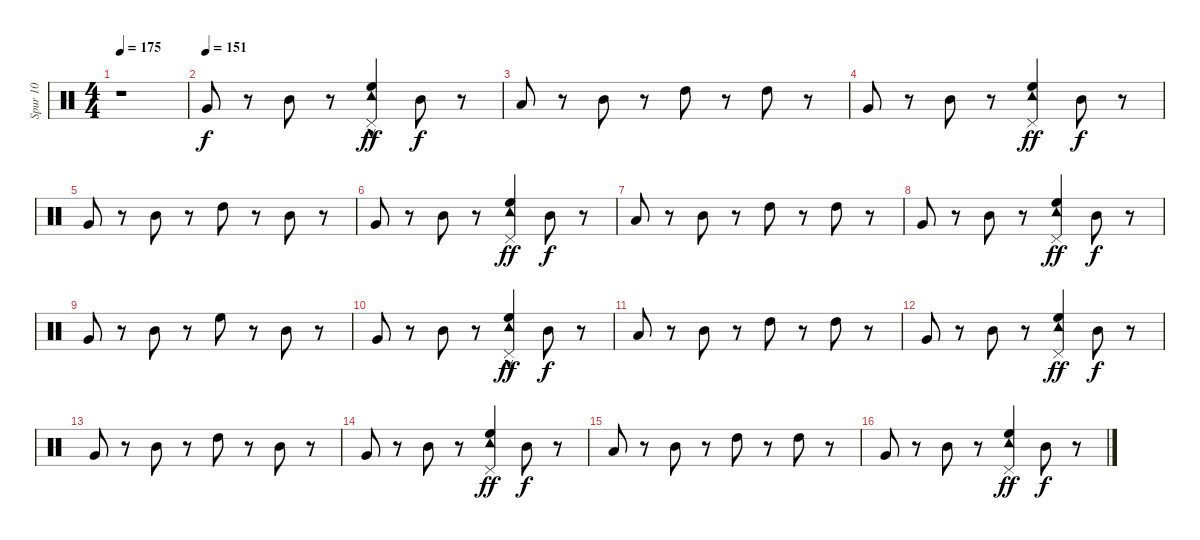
\track ("Spur 10" "Spur 10") {instrument percussion}
\staff {score}
\articulation defaults
\ts (4 4)
\tempo 175
\clef neutral
\ks c
r.1{dy f} |
\tempo (151)
"Very Low Tom (hit)".8 r.8 "Mid Tom (hit)".8 r.8 ("Pedal Hi-Hat (hit)" "Tambourine (hit)"{hac} "High Floor Tom (hit)").4{dy ff} "Mid Tom (hit)".8{dy f} r.8 |
"Low Tom (hit)".8 r.8 "Mid Tom (hit)".8 r.8 "High Tom (hit)".8 r.8 "High Tom (hit)".8 r.8 |
"Very Low Tom (hit)".8 r.8 "Mid Tom (hit)".8 r.8 ("Pedal Hi-Hat (hit)" "Tambourine (hit)" "High Floor Tom (hit)").4{dy ff} "Mid Tom (hit)".8{dy f} r.8 |
"Very Low Tom (hit)".8 r.8 "Mid Tom (hit)".8 r.8 "High Tom (hit)".8 r.8 "Mid Tom (hit)".8 r.8 |
"Very Low Tom (hit)".8 r.8 "Mid Tom (hit)".8 r.8 ("Pedal Hi-Hat (hit)" "Tambourine (hit)" "High Floor Tom (hit)").4{dy ff} "Mid Tom (hit)".8{dy f} r.8 |
"Low Tom (hit)".8 r.8 "Mid Tom (hit)".8 r.8 "High Tom (hit)".8 r.8 "High Tom (hit)".8 r.8 |
"Very Low Tom (hit)".8 r.8 "Mid Tom (hit)".8 r.8 ("Tambourine (hit)" "Pedal Hi-Hat (hit)" "High Floor Tom (hit)").4{dy ff} "Mid Tom (hit)".8{dy f} r.8 |
"Very Low Tom (hit)".8 r.8 "Mid Tom (hit)".8 r.8 "High Floor Tom (hit)".8 r.8 "Mid Tom (hit)".8 r.8 |
"Very Low Tom (hit)".8 r.8 "Mid Tom (hit)".8 r.8 ("Pedal Hi-Hat (hit)" "Tambourine (hit)"{hac} "High Floor Tom (hit)").4{dy ff} "Mid Tom (hit)".8{dy f} r.8 |
"Low Tom (hit)".8 r.8 "Mid Tom (hit)".8 r.8 "High Tom (hit)".8 r.8 "High Tom (hit)".8 r.8 |
"Very Low Tom (hit)".8 r.8 "Mid Tom (hit)".8 r.8 ("Pedal Hi-Hat (hit)" "Tambourine (hit)" "High Floor Tom (hit)").4{dy ff} "Mid Tom (hit)".8{dy f} r.8 |
"Very Low Tom (hit)".8 r.8 "Mid Tom (hit)".8 r.8 "High Tom (hit)".8 r.8 "Mid Tom (hit)".8 r.8 |
"Very Low Tom (hit)".8 r.8 "Mid Tom (hit)".8 r.8 ("Pedal Hi-Hat (hit)" "Tambourine (hit)" "High Floor Tom (hit)").4{dy ff} "Mid Tom (hit)".8{dy f} r.8 |
"Low Tom (hit)".8 r.8 "Mid Tom (hit)".8 r.8 "High Tom (hit)".8 r.8 "High Tom (hit)".8 r.8 |
"Very Low Tom (hit)".8 r.8 "Mid Tom (hit)".8 r.8 ("Tambourine (hit)" "Pedal Hi-Hat (hit)" "High Floor Tom (hit)").4{dy ff} "Mid Tom (hit)".8{dy f} r.8
